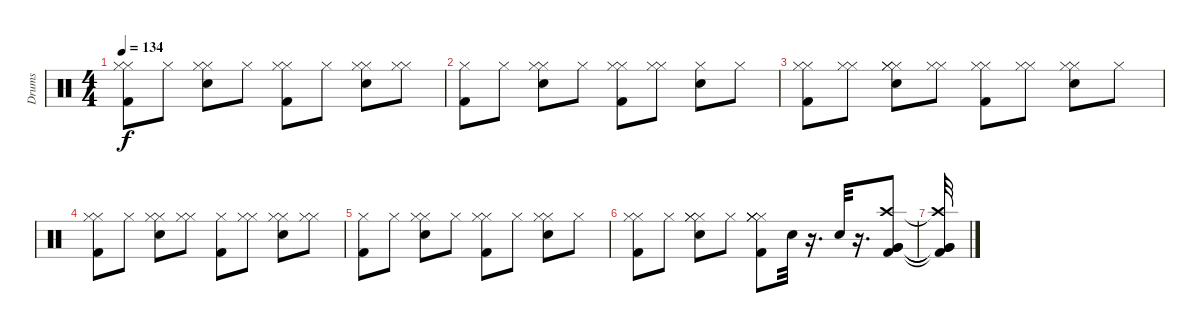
\track ("Drums" "Drums") {instrument percussion}
\staff {score}
\articulation defaults
\ts (4 4)
\tempo 134
\clef neutral
\ks c
("Hi-Hat (closed)" "Hi-Hat (closed)" "Kick (hit) 2").8{dy f} "Hi-Hat (closed)".8 ("Hi-Hat (closed)" "Hi-Hat (closed)" "Electric Snare (hit)").8 "Hi-Hat (closed)".8 ("Hi-Hat (closed)" "Hi-Hat (closed)" "Kick (hit) 2").8 "Hi-Hat (closed)".8 ("Hi-Hat (closed)" "Hi-Hat (closed)" "Electric Snare (hit)").8 ("Hi-Hat (closed)" "Hi-Hat (closed)").8 |
("Hi-Hat (closed)" "Kick (hit) 2").8 "Hi-Hat (closed)".8 ("Hi-Hat (closed)" "Hi-Hat (closed)" "Electric Snare (hit)").8 "Hi-Hat (closed)".8 ("Hi-Hat (closed)" "Hi-Hat (closed)" "Kick (hit) 2").8 ("Hi-Hat (closed)" "Hi-Hat (closed)").8 ("Hi-Hat (closed)" "Electric Snare (hit)").8 "Hi-Hat (closed)".8 |
("Hi-Hat (closed)" "Hi-Hat (closed)" "Kick (hit) 2").8 ("Hi-Hat (closed)" "Hi-Hat (closed)").8 ("Hi-Hat (closed)" "Hi-Hat (closed)" "Hi-Hat (closed)" "Electric Snare (hit)").8 ("Hi-Hat (closed)" "Hi-Hat (closed)").8 ("Hi-Hat (closed)" "Hi-Hat (closed)" "Kick (hit) 2").8 ("Hi-Hat (closed)" "Hi-Hat (closed)").8 ("Hi-Hat (closed)" "Hi-Hat (closed)" "Electric Snare (hit)").8 "Hi-Hat (closed)".8 |
("Hi-Hat (closed)" "Hi-Hat (closed)" "Kick (hit) 2").8 "Hi-Hat (closed)".8 ("Hi-Hat (closed)" "Hi-Hat (closed)" "Electric Snare (hit)").8 ("Hi-Hat (closed)" "Hi-Hat (closed)").8 ("Hi-Hat (closed)" "Kick (hit) 2").8 ("Hi-Hat (closed)" "Hi-Hat (closed)").8 ("Hi-Hat (closed)" "Hi-Hat (closed)" "Electric Snare (hit)").8 ("Hi-Hat (closed)" "Hi-Hat (closed)").8 |
("Hi-Hat (closed)" "Kick (hit) 2").8 "Hi-Hat (closed)".8 ("Hi-Hat (closed)" "Hi-Hat (closed)" "Electric Snare (hit)").8 "Hi-Hat (closed)".8 ("Hi-Hat (closed)" "Hi-Hat (closed)" "Kick (hit) 2").8 "Hi-Hat (closed)".8 ("Hi-Hat (closed)" "Hi-Hat (closed)" "Electric Snare (hit)").8 "Hi-Hat (closed)".8 |
("Hi-Hat (closed)" "Hi-Hat (closed)" "Kick (hit) 2").8 "Hi-Hat (closed)".8 ("Hi-Hat (closed)" "Hi-Hat (closed)" "Hi-Hat (closed)" "Electric Snare (hit)").8 "Hi-Hat (closed)".8 ("Hi-Hat (closed)" "Hi-Hat (closed)" "Hi-Hat (closed)" "Hi-Hat (closed)" "Kick (hit) 2").8 "Electric Snare (hit)".32 r.16{d} "Electric Snare (hit)".32 r.16{d} ("Crash high (hit)" "Very Low Tom (hit)" "Very Low Tom (hit)" "Kick (hit) 2").8 |
("Crash high (hit)"{t} "Very Low Tom (hit)"{t} "Very Low Tom (hit)"{t} "Kick (hit) 2"{t}).32
